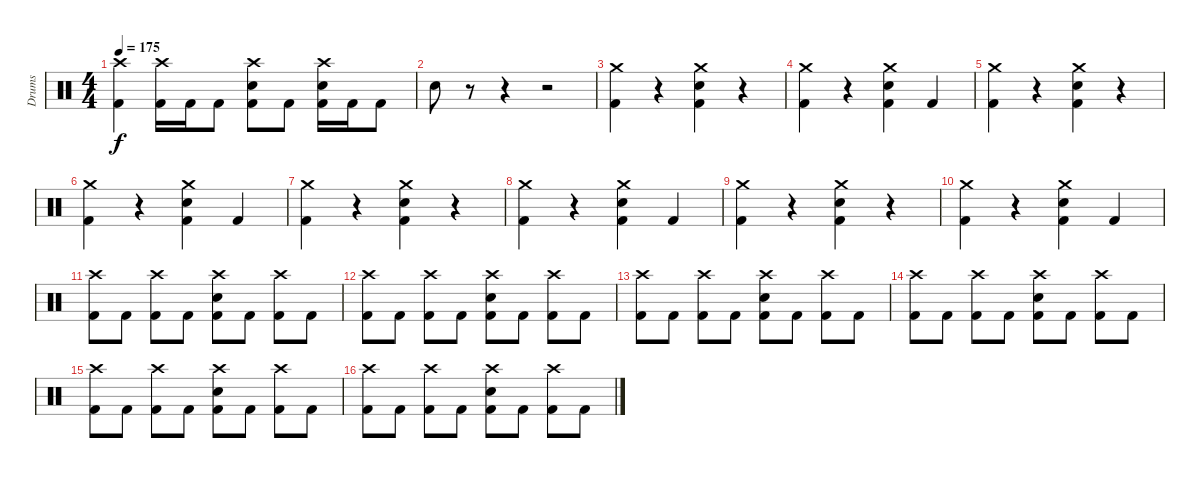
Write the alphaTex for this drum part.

\track ("Drums" "Drums") {instrument percussion}
\staff {score}
\articulation defaults
\ts (4 4)
\tempo 175
\clef neutral
\ks c
("Crash high (hit)" "Kick (hit) 2").4{dy f} ("Crash high (hit)" "Kick (hit) 2").16 "Kick (hit) 2".16 "Kick (hit) 2".8 ("Crash high (hit)" "Snare (hit) 2" "Kick (hit) 2").8 "Kick (hit) 2".8 ("Crash high (hit)" "Snare (hit) 2" "Kick (hit) 2").16 "Kick (hit) 2".16 "Kick (hit) 2".8 |
"Snare (hit) 2".8 r.8 r.4 r.2 |
("Crash medium (hit)" "Kick (hit) 2").4 r.4 ("Crash medium (hit)" "Snare (hit) 2" "Kick (hit) 2").4 r.4 |
("Crash medium (hit)" "Kick (hit) 2").4 r.4 ("Crash medium (hit)" "Snare (hit) 2" "Kick (hit) 2").4 "Kick (hit) 2".4 |
("Crash medium (hit)" "Kick (hit) 2").4 r.4 ("Crash medium (hit)" "Snare (hit) 2" "Kick (hit) 2").4 r.4 |
("Crash medium (hit)" "Kick (hit) 2").4 r.4 ("Crash medium (hit)" "Snare (hit) 2" "Kick (hit) 2").4 "Kick (hit) 2".4 |
("Crash medium (hit)" "Kick (hit) 2").4 r.4 ("Crash medium (hit)" "Snare (hit) 2" "Kick (hit) 2").4 r.4 |
("Crash medium (hit)" "Kick (hit) 2").4 r.4 ("Crash medium (hit)" "Snare (hit) 2" "Kick (hit) 2").4 "Kick (hit) 2".4 |
("Crash medium (hit)" "Kick (hit) 2").4 r.4 ("Crash medium (hit)" "Snare (hit) 2" "Kick (hit) 2").4 r.4 |
("Crash medium (hit)" "Kick (hit) 2").4 r.4 ("Crash medium (hit)" "Snare (hit) 2" "Kick (hit) 2").4 "Kick (hit) 2".4 |
("Crash high (hit)" "Kick (hit) 2").8 "Kick (hit) 2".8 ("Crash high (hit)" "Kick (hit) 2").8 "Kick (hit) 2".8 ("Crash high (hit)" "Snare (hit) 2" "Kick (hit) 2").8 "Kick (hit) 2".8 ("Crash high (hit)" "Kick (hit) 2").8 "Kick (hit) 2".8 |
("Crash high (hit)" "Kick (hit) 2").8 "Kick (hit) 2".8 ("Crash high (hit)" "Kick (hit) 2").8 "Kick (hit) 2".8 ("Crash high (hit)" "Snare (hit) 2" "Kick (hit) 2").8 "Kick (hit) 2".8 ("Crash high (hit)" "Kick (hit) 2").8 "Kick (hit) 2".8 |
("Crash high (hit)" "Kick (hit) 2").8 "Kick (hit) 2".8 ("Crash high (hit)" "Kick (hit) 2").8 "Kick (hit) 2".8 ("Crash high (hit)" "Snare (hit) 2" "Kick (hit) 2").8 "Kick (hit) 2".8 ("Crash high (hit)" "Kick (hit) 2").8 "Kick (hit) 2".8 |
("Crash high (hit)" "Kick (hit) 2").8 "Kick (hit) 2".8 ("Crash high (hit)" "Kick (hit) 2").8 "Kick (hit) 2".8 ("Crash high (hit)" "Snare (hit) 2" "Kick (hit) 2").8 "Kick (hit) 2".8 ("Crash high (hit)" "Kick (hit) 2").8 "Kick (hit) 2".8 |
("Crash high (hit)" "Kick (hit) 2").8 "Kick (hit) 2".8 ("Crash high (hit)" "Kick (hit) 2").8 "Kick (hit) 2".8 ("Crash high (hit)" "Snare (hit) 2" "Kick (hit) 2").8 "Kick (hit) 2".8 ("Crash high (hit)" "Kick (hit) 2").8 "Kick (hit) 2".8 |
("Crash high (hit)" "Kick (hit) 2").8 "Kick (hit) 2".8 ("Crash high (hit)" "Kick (hit) 2").8 "Kick (hit) 2".8 ("Crash high (hit)" "Snare (hit) 2" "Kick (hit) 2").8 "Kick (hit) 2".8 ("Crash high (hit)" "Kick (hit) 2").8 "Kick (hit) 2".8
